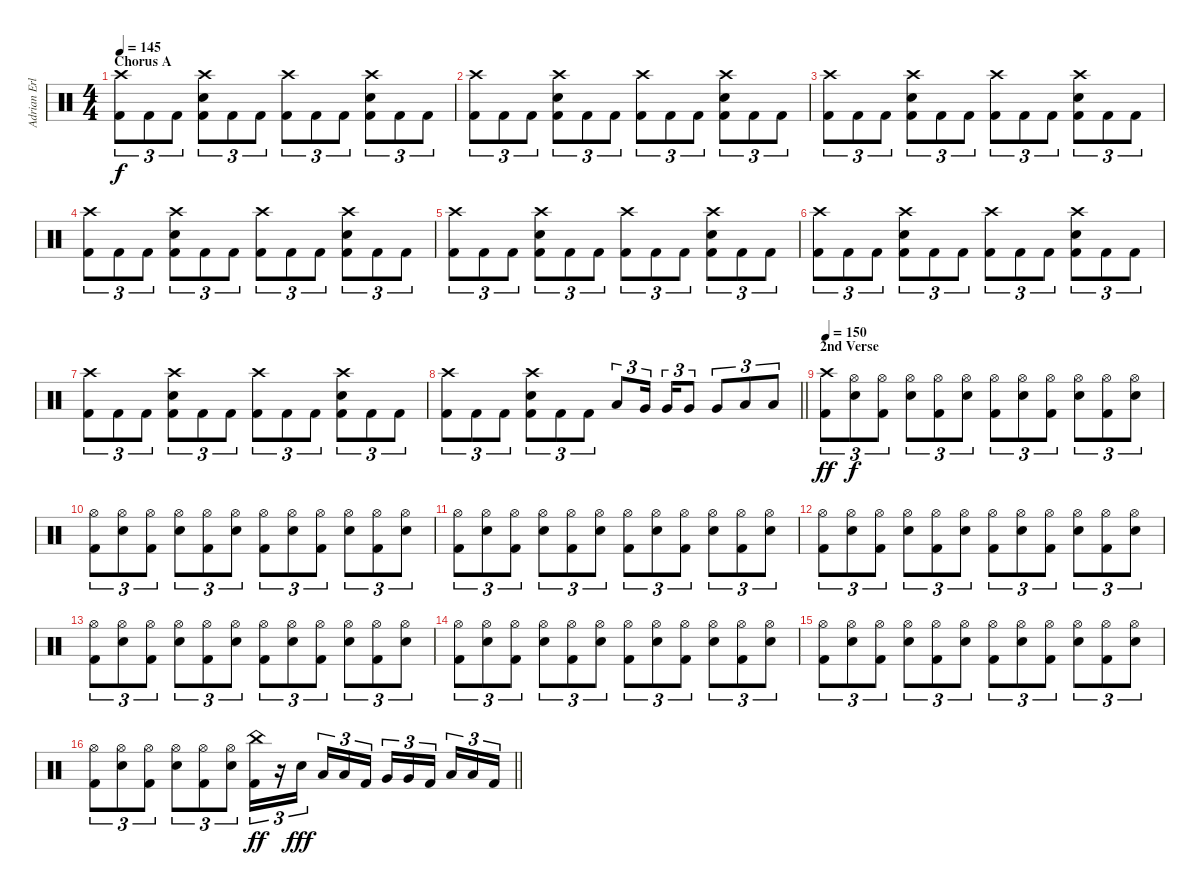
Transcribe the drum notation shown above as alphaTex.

\track ("Adrian Erlandsson" "Adrian Erl") {instrument percussion}
\staff {score}
\articulation defaults
\ts (4 4)
\section ("" "Chorus A")
\tempo 145
\clef neutral
\ks c
("Crash high (hit)" "Kick (hit) 2").8{tu (3 2) dy f} "Kick (hit) 2".8{tu (3 2)} "Kick (hit) 2".8{tu (3 2)} ("Crash high (hit)" "Snare (hit) 2" "Kick (hit) 2").8{tu (3 2)} "Kick (hit) 2".8{tu (3 2)} "Kick (hit) 2".8{tu (3 2)} ("Crash high (hit)" "Kick (hit) 2").8{tu (3 2)} "Kick (hit) 2".8{tu (3 2)} "Kick (hit) 2".8{tu (3 2)} ("Crash high (hit)" "Snare (hit) 2" "Kick (hit) 2").8{tu (3 2)} "Kick (hit) 2".8{tu (3 2)} "Kick (hit) 2".8{tu (3 2)} |
("Crash high (hit)" "Kick (hit) 2").8{tu (3 2)} "Kick (hit) 2".8{tu (3 2)} "Kick (hit) 2".8{tu (3 2)} ("Crash high (hit)" "Snare (hit) 2" "Kick (hit) 2").8{tu (3 2)} "Kick (hit) 2".8{tu (3 2)} "Kick (hit) 2".8{tu (3 2)} ("Crash high (hit)" "Kick (hit) 2").8{tu (3 2)} "Kick (hit) 2".8{tu (3 2)} "Kick (hit) 2".8{tu (3 2)} ("Crash high (hit)" "Snare (hit) 2" "Kick (hit) 2").8{tu (3 2)} "Kick (hit) 2".8{tu (3 2)} "Kick (hit) 2".8{tu (3 2)} |
("Crash high (hit)" "Kick (hit) 2").8{tu (3 2)} "Kick (hit) 2".8{tu (3 2)} "Kick (hit) 2".8{tu (3 2)} ("Crash high (hit)" "Snare (hit) 2" "Kick (hit) 2").8{tu (3 2)} "Kick (hit) 2".8{tu (3 2)} "Kick (hit) 2".8{tu (3 2)} ("Crash high (hit)" "Kick (hit) 2").8{tu (3 2)} "Kick (hit) 2".8{tu (3 2)} "Kick (hit) 2".8{tu (3 2)} ("Crash high (hit)" "Snare (hit) 2" "Kick (hit) 2").8{tu (3 2)} "Kick (hit) 2".8{tu (3 2)} "Kick (hit) 2".8{tu (3 2)} |
("Crash high (hit)" "Kick (hit) 2").8{tu (3 2)} "Kick (hit) 2".8{tu (3 2)} "Kick (hit) 2".8{tu (3 2)} ("Crash high (hit)" "Snare (hit) 2" "Kick (hit) 2").8{tu (3 2)} "Kick (hit) 2".8{tu (3 2)} "Kick (hit) 2".8{tu (3 2)} ("Crash high (hit)" "Kick (hit) 2").8{tu (3 2)} "Kick (hit) 2".8{tu (3 2)} "Kick (hit) 2".8{tu (3 2)} ("Crash high (hit)" "Snare (hit) 2" "Kick (hit) 2").8{tu (3 2)} "Kick (hit) 2".8{tu (3 2)} "Kick (hit) 2".8{tu (3 2)} |
("Crash high (hit)" "Kick (hit) 2").8{tu (3 2)} "Kick (hit) 2".8{tu (3 2)} "Kick (hit) 2".8{tu (3 2)} ("Crash high (hit)" "Snare (hit) 2" "Kick (hit) 2").8{tu (3 2)} "Kick (hit) 2".8{tu (3 2)} "Kick (hit) 2".8{tu (3 2)} ("Crash high (hit)" "Kick (hit) 2").8{tu (3 2)} "Kick (hit) 2".8{tu (3 2)} "Kick (hit) 2".8{tu (3 2)} ("Crash high (hit)" "Snare (hit) 2" "Kick (hit) 2").8{tu (3 2)} "Kick (hit) 2".8{tu (3 2)} "Kick (hit) 2".8{tu (3 2)} |
("Crash high (hit)" "Kick (hit) 2").8{tu (3 2)} "Kick (hit) 2".8{tu (3 2)} "Kick (hit) 2".8{tu (3 2)} ("Crash high (hit)" "Snare (hit) 2" "Kick (hit) 2").8{tu (3 2)} "Kick (hit) 2".8{tu (3 2)} "Kick (hit) 2".8{tu (3 2)} ("Crash high (hit)" "Kick (hit) 2").8{tu (3 2)} "Kick (hit) 2".8{tu (3 2)} "Kick (hit) 2".8{tu (3 2)} ("Crash high (hit)" "Snare (hit) 2" "Kick (hit) 2").8{tu (3 2)} "Kick (hit) 2".8{tu (3 2)} "Kick (hit) 2".8{tu (3 2)} |
("Crash high (hit)" "Kick (hit) 2").8{tu (3 2)} "Kick (hit) 2".8{tu (3 2)} "Kick (hit) 2".8{tu (3 2)} ("Crash high (hit)" "Snare (hit) 2" "Kick (hit) 2").8{tu (3 2)} "Kick (hit) 2".8{tu (3 2)} "Kick (hit) 2".8{tu (3 2)} ("Crash high (hit)" "Kick (hit) 2").8{tu (3 2)} "Kick (hit) 2".8{tu (3 2)} "Kick (hit) 2".8{tu (3 2)} ("Crash high (hit)" "Snare (hit) 2" "Kick (hit) 2").8{tu (3 2)} "Kick (hit) 2".8{tu (3 2)} "Kick (hit) 2".8{tu (3 2)} |
\barLineRight lightlight
("Crash high (hit)" "Kick (hit) 2").8{tu (3 2)} "Kick (hit) 2".8{tu (3 2)} "Kick (hit) 2".8{tu (3 2)} ("Crash high (hit)" "Snare (hit) 2" "Kick (hit) 2").8{tu (3 2)} "Kick (hit) 2".8{tu (3 2)} "Kick (hit) 2".8{tu (3 2)} "Low Tom (hit)".8{tu (3 2)} "Very Low Tom (hit)".16{tu (3 2) beam splitsecondary} "Very Low Tom (hit)".16{tu (3 2)} "Very Low Tom (hit)".8{tu (3 2)} "Very Low Tom (hit)".8{tu (3 2)} "Low Floor Tom (hit)".8{tu (3 2)} "Low Floor Tom (hit)".8{tu (3 2)} |
\section ("" "2nd Verse")
\tempo 150
("Crash high (hit)" "Kick (hit) 2").8{tu (3 2) dy ff} ("Hi-Hat (open)" "Snare (hit) 2").8{tu (3 2) dy f} ("Hi-Hat (open)" "Kick (hit) 2").8{tu (3 2)} ("Hi-Hat (open)" "Snare (hit) 2").8{tu (3 2)} ("Hi-Hat (open)" "Kick (hit) 2").8{tu (3 2)} ("Hi-Hat (open)" "Snare (hit) 2").8{tu (3 2)} ("Hi-Hat (open)" "Kick (hit) 2").8{tu (3 2)} ("Hi-Hat (open)" "Snare (hit) 2").8{tu (3 2)} ("Hi-Hat (open)" "Kick (hit) 2").8{tu (3 2)} ("Hi-Hat (open)" "Snare (hit) 2").8{tu (3 2)} ("Hi-Hat (open)" "Kick (hit) 2").8{tu (3 2)} ("Hi-Hat (open)" "Snare (hit) 2").8{tu (3 2)} |
("Hi-Hat (open)" "Kick (hit) 2").8{tu (3 2)} ("Hi-Hat (open)" "Snare (hit) 2").8{tu (3 2)} ("Hi-Hat (open)" "Kick (hit) 2").8{tu (3 2)} ("Hi-Hat (open)" "Snare (hit) 2").8{tu (3 2)} ("Hi-Hat (open)" "Kick (hit) 2").8{tu (3 2)} ("Hi-Hat (open)" "Snare (hit) 2").8{tu (3 2)} ("Hi-Hat (open)" "Kick (hit) 2").8{tu (3 2)} ("Hi-Hat (open)" "Snare (hit) 2").8{tu (3 2)} ("Hi-Hat (open)" "Kick (hit) 2").8{tu (3 2)} ("Hi-Hat (open)" "Snare (hit) 2").8{tu (3 2)} ("Hi-Hat (open)" "Kick (hit) 2").8{tu (3 2)} ("Hi-Hat (open)" "Snare (hit) 2").8{tu (3 2)} |
("Hi-Hat (open)" "Kick (hit) 2").8{tu (3 2)} ("Hi-Hat (open)" "Snare (hit) 2").8{tu (3 2)} ("Hi-Hat (open)" "Kick (hit) 2").8{tu (3 2)} ("Hi-Hat (open)" "Snare (hit) 2").8{tu (3 2)} ("Hi-Hat (open)" "Kick (hit) 2").8{tu (3 2)} ("Hi-Hat (open)" "Snare (hit) 2").8{tu (3 2)} ("Hi-Hat (open)" "Kick (hit) 2").8{tu (3 2)} ("Hi-Hat (open)" "Snare (hit) 2").8{tu (3 2)} ("Hi-Hat (open)" "Kick (hit) 2").8{tu (3 2)} ("Hi-Hat (open)" "Snare (hit) 2").8{tu (3 2)} ("Hi-Hat (open)" "Kick (hit) 2").8{tu (3 2)} ("Hi-Hat (open)" "Snare (hit) 2").8{tu (3 2)} |
("Hi-Hat (open)" "Kick (hit) 2").8{tu (3 2)} ("Hi-Hat (open)" "Snare (hit) 2").8{tu (3 2)} ("Hi-Hat (open)" "Kick (hit) 2").8{tu (3 2)} ("Hi-Hat (open)" "Snare (hit) 2").8{tu (3 2)} ("Hi-Hat (open)" "Kick (hit) 2").8{tu (3 2)} ("Hi-Hat (open)" "Snare (hit) 2").8{tu (3 2)} ("Hi-Hat (open)" "Kick (hit) 2").8{tu (3 2)} ("Hi-Hat (open)" "Snare (hit) 2").8{tu (3 2)} ("Hi-Hat (open)" "Kick (hit) 2").8{tu (3 2)} ("Hi-Hat (open)" "Snare (hit) 2").8{tu (3 2)} ("Hi-Hat (open)" "Kick (hit) 2").8{tu (3 2)} ("Hi-Hat (open)" "Snare (hit) 2").8{tu (3 2)} |
("Hi-Hat (open)" "Kick (hit) 2").8{tu (3 2)} ("Hi-Hat (open)" "Snare (hit) 2").8{tu (3 2)} ("Hi-Hat (open)" "Kick (hit) 2").8{tu (3 2)} ("Hi-Hat (open)" "Snare (hit) 2").8{tu (3 2)} ("Hi-Hat (open)" "Kick (hit) 2").8{tu (3 2)} ("Hi-Hat (open)" "Snare (hit) 2").8{tu (3 2)} ("Hi-Hat (open)" "Kick (hit) 2").8{tu (3 2)} ("Hi-Hat (open)" "Snare (hit) 2").8{tu (3 2)} ("Hi-Hat (open)" "Kick (hit) 2").8{tu (3 2)} ("Hi-Hat (open)" "Snare (hit) 2").8{tu (3 2)} ("Hi-Hat (open)" "Kick (hit) 2").8{tu (3 2)} ("Hi-Hat (open)" "Snare (hit) 2").8{tu (3 2)} |
("Hi-Hat (open)" "Kick (hit) 2").8{tu (3 2)} ("Hi-Hat (open)" "Snare (hit) 2").8{tu (3 2)} ("Hi-Hat (open)" "Kick (hit) 2").8{tu (3 2)} ("Hi-Hat (open)" "Snare (hit) 2").8{tu (3 2)} ("Hi-Hat (open)" "Kick (hit) 2").8{tu (3 2)} ("Hi-Hat (open)" "Snare (hit) 2").8{tu (3 2)} ("Hi-Hat (open)" "Kick (hit) 2").8{tu (3 2)} ("Hi-Hat (open)" "Snare (hit) 2").8{tu (3 2)} ("Hi-Hat (open)" "Kick (hit) 2").8{tu (3 2)} ("Hi-Hat (open)" "Snare (hit) 2").8{tu (3 2)} ("Hi-Hat (open)" "Kick (hit) 2").8{tu (3 2)} ("Hi-Hat (open)" "Snare (hit) 2").8{tu (3 2)} |
("Hi-Hat (open)" "Kick (hit) 2").8{tu (3 2)} ("Hi-Hat (open)" "Snare (hit) 2").8{tu (3 2)} ("Hi-Hat (open)" "Kick (hit) 2").8{tu (3 2)} ("Hi-Hat (open)" "Snare (hit) 2").8{tu (3 2)} ("Hi-Hat (open)" "Kick (hit) 2").8{tu (3 2)} ("Hi-Hat (open)" "Snare (hit) 2").8{tu (3 2)} ("Hi-Hat (open)" "Kick (hit) 2").8{tu (3 2)} ("Hi-Hat (open)" "Snare (hit) 2").8{tu (3 2)} ("Hi-Hat (open)" "Kick (hit) 2").8{tu (3 2)} ("Hi-Hat (open)" "Snare (hit) 2").8{tu (3 2)} ("Hi-Hat (open)" "Kick (hit) 2").8{tu (3 2)} ("Hi-Hat (open)" "Snare (hit) 2").8{tu (3 2)} |
\barLineRight lightlight
("Hi-Hat (open)" "Kick (hit) 2").8{tu (3 2)} ("Hi-Hat (open)" "Snare (hit) 2").8{tu (3 2)} ("Hi-Hat (open)" "Kick (hit) 2").8{tu (3 2)} ("Hi-Hat (open)" "Snare (hit) 2").8{tu (3 2)} ("Hi-Hat (open)" "Kick (hit) 2").8{tu (3 2)} ("Hi-Hat (open)" "Snare (hit) 2").8{tu (3 2)} ("China (hit)" "Kick (hit) 2").16{tu (3 2) dy ff} r.16{tu (3 2)} "Snare (hit) 2".16{tu (3 2) dy fff beam splitsecondary} "Low Tom (hit)".16{tu (3 2)} "Low Tom (hit)".16{tu (3 2)} "Kick (hit) 2".16{tu (3 2)} "Very Low Tom (hit)".16{tu (3 2)} "Very Low Tom (hit)".16{tu (3 2)} "Kick (hit) 2".16{tu (3 2) beam splitsecondary} "Low Floor Tom (hit)".16{tu (3 2)} "Low Floor Tom (hit)".16{tu (3 2)} "Kick (hit) 2".16{tu (3 2)}
